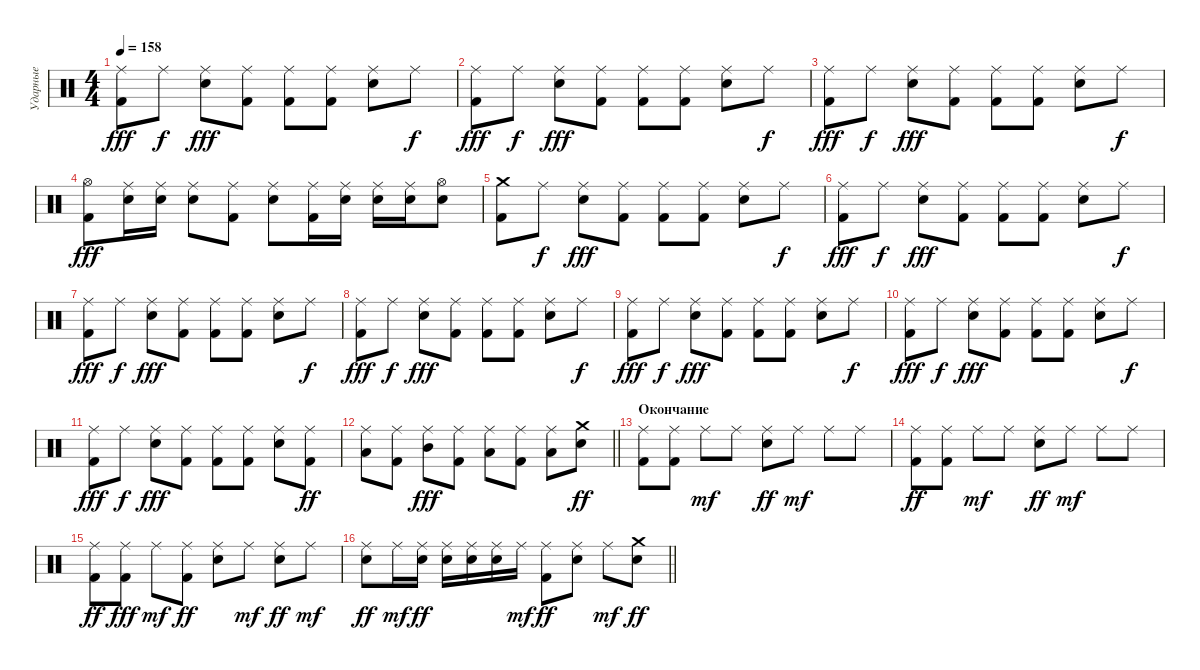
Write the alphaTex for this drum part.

\track ("Ударные" "Ударные") {instrument percussion}
\staff {score}
\articulation defaults
\ts (4 4)
\tempo 158
\clef neutral
\ks c
("Ride (middle)" "Kick (hit) 2").8{dy fff} "Ride (middle)".8{dy f} ("Ride (middle)" "Electric Snare (hit)").8{dy fff} ("Ride (middle)" "Kick (hit) 2").8 ("Ride (middle)" "Kick (hit) 2").8 ("Ride (middle)" "Kick (hit) 2").8 ("Ride (middle)" "Snare (hit) 2").8 "Ride (middle)".8{dy f} |
("Ride (middle)" "Kick (hit) 2").8{dy fff} "Ride (middle)".8{dy f} ("Ride (middle)" "Electric Snare (hit)").8{dy fff} ("Ride (middle)" "Kick (hit) 2").8 ("Ride (middle)" "Kick (hit) 2").8 ("Ride (middle)" "Kick (hit) 2").8 ("Ride (middle)" "Snare (hit) 2").8 "Ride (middle)".8{dy f} |
("Ride (middle)" "Kick (hit) 2").8{dy fff} "Ride (middle)".8{dy f} ("Ride (middle)" "Electric Snare (hit)").8{dy fff} ("Ride (middle)" "Kick (hit) 2").8 ("Ride (middle)" "Kick (hit) 2").8 ("Ride (middle)" "Kick (hit) 2").8 ("Ride (middle)" "Snare (hit) 2").8 "Ride (middle)".8{dy f} |
("Hi-Hat (open)" "Kick (hit) 2").8{dy fff} ("Ride (middle)" "Electric Snare (hit)").16 ("Ride (middle)" "Electric Snare (hit)").16 ("Ride (middle)" "Electric Snare (hit)").8 ("Ride (middle)" "Kick (hit) 2").8 ("Ride (middle)" "Snare (hit) 2").8 ("Ride (middle)" "Kick (hit) 2").16 ("Ride (middle)" "Electric Snare (hit)").16 ("Ride (middle)" "Electric Snare (hit)").16 ("Ride (middle)" "Electric Snare (hit)").16 ("Hi-Hat (open)" "Electric Snare (hit)").8 |
("Crash medium (hit)" "Kick (hit) 2").8 "Ride (middle)".8{dy f} ("Ride (middle)" "Electric Snare (hit)").8{dy fff} ("Ride (middle)" "Kick (hit) 2").8 ("Ride (middle)" "Kick (hit) 2").8 ("Ride (middle)" "Kick (hit) 2").8 ("Ride (middle)" "Snare (hit) 2").8 "Ride (middle)".8{dy f} |
("Ride (middle)" "Kick (hit) 2").8{dy fff} "Ride (middle)".8{dy f} ("Ride (middle)" "Electric Snare (hit)").8{dy fff} ("Ride (middle)" "Kick (hit) 2").8 ("Ride (middle)" "Kick (hit) 2").8 ("Ride (middle)" "Kick (hit) 2").8 ("Ride (middle)" "Snare (hit) 2").8 "Ride (middle)".8{dy f} |
("Ride (middle)" "Kick (hit) 2").8{dy fff} "Ride (middle)".8{dy f} ("Ride (middle)" "Electric Snare (hit)").8{dy fff} ("Ride (middle)" "Kick (hit) 2").8 ("Ride (middle)" "Kick (hit) 2").8 ("Ride (middle)" "Kick (hit) 2").8 ("Ride (middle)" "Snare (hit) 2").8 "Ride (middle)".8{dy f} |
("Ride (middle)" "Kick (hit) 2").8{dy fff} "Ride (middle)".8{dy f} ("Ride (middle)" "Electric Snare (hit)").8{dy fff} ("Ride (middle)" "Kick (hit) 2").8 ("Ride (middle)" "Kick (hit) 2").8 ("Ride (middle)" "Kick (hit) 2").8 ("Ride (middle)" "Snare (hit) 2").8 "Ride (middle)".8{dy f} |
("Ride (middle)" "Kick (hit) 2").8{dy fff} "Ride (middle)".8{dy f} ("Ride (middle)" "Electric Snare (hit)").8{dy fff} ("Ride (middle)" "Kick (hit) 2").8 ("Ride (middle)" "Kick (hit) 2").8 ("Ride (middle)" "Kick (hit) 2").8 ("Ride (middle)" "Snare (hit) 2").8 "Ride (middle)".8{dy f} |
("Ride (middle)" "Kick (hit) 2").8{dy fff} "Ride (middle)".8{dy f} ("Ride (middle)" "Electric Snare (hit)").8{dy fff} ("Ride (middle)" "Kick (hit) 2").8 ("Ride (middle)" "Kick (hit) 2").8 ("Ride (middle)" "Kick (hit) 2").8 ("Ride (middle)" "Snare (hit) 2").8 "Ride (middle)".8{dy f} |
("Ride (middle)" "Kick (hit) 2").8{dy fff} "Ride (middle)".8{dy f} ("Ride (middle)" "Electric Snare (hit)").8{dy fff} ("Ride (middle)" "Kick (hit) 2").8 ("Ride (middle)" "Kick (hit) 2").8 ("Ride (middle)" "Kick (hit) 2").8 ("Ride (middle)" "Snare (hit) 2").8 ("Ride (middle)" "Kick (hit) 2").8{dy ff} |
\barLineRight lightlight
("Ride (middle)" "Low Tom (hit)").8 ("Ride (middle)" "Kick (hit) 2").8 ("Ride (middle)" "Mid Tom (hit)").8{dy fff} ("Ride (middle)" "Kick (hit) 2").8 ("Ride (middle)" "Low Tom (hit)").8 ("Ride (middle)" "Kick (hit) 2").8 ("Ride (middle)" "Low Tom (hit)").8 ("Crash medium (hit)" "Snare (hit) 2").8{dy ff} |
\section ("" "Окончание")
("Ride (middle)" "Kick (hit) 2").8 ("Ride (middle)" "Kick (hit) 2").8 "Ride (middle)".8{dy mf} "Ride (middle)".8 ("Ride (middle)" "Electric Snare (hit)").8{dy ff} "Ride (middle)".8{dy mf} "Ride (middle)".8 "Ride (middle)".8 |
("Ride (middle)" "Kick (hit) 2").8{dy ff} ("Ride (middle)" "Kick (hit) 2").8 "Ride (middle)".8{dy mf} "Ride (middle)".8 ("Ride (middle)" "Electric Snare (hit)").8{dy ff} "Ride (middle)".8{dy mf} "Ride (middle)".8 "Ride (middle)".8 |
("Ride (middle)" "Kick (hit) 2").8{dy ff} ("Ride (middle)" "Kick (hit) 2").8{dy fff} "Ride (middle)".8{dy mf} ("Ride (middle)" "Kick (hit) 2").8{dy ff} ("Ride (middle)" "Electric Snare (hit)").8 "Ride (middle)".8{dy mf} ("Ride (middle)" "Snare (hit) 2").8{dy ff} "Ride (middle)".8{dy mf} |
\barLineRight lightlight
("Ride (middle)" "Snare (hit) 2").8{dy ff} "Ride (middle)".16{dy mf} ("Ride (middle)" "Electric Snare (hit)").16{dy ff} ("Ride (middle)" "Electric Snare (hit)").16 ("Ride (middle)" "Electric Snare (hit)").16 ("Ride (middle)" "Electric Snare (hit)").16 "Ride (middle)".16{dy mf} ("Ride (middle)" "Kick (hit) 2").8{dy ff} ("Ride (middle)" "Electric Snare (hit)").8 "Ride (middle)".8{dy mf} ("Crash medium (hit)" "Snare (hit) 2").8{dy ff}
